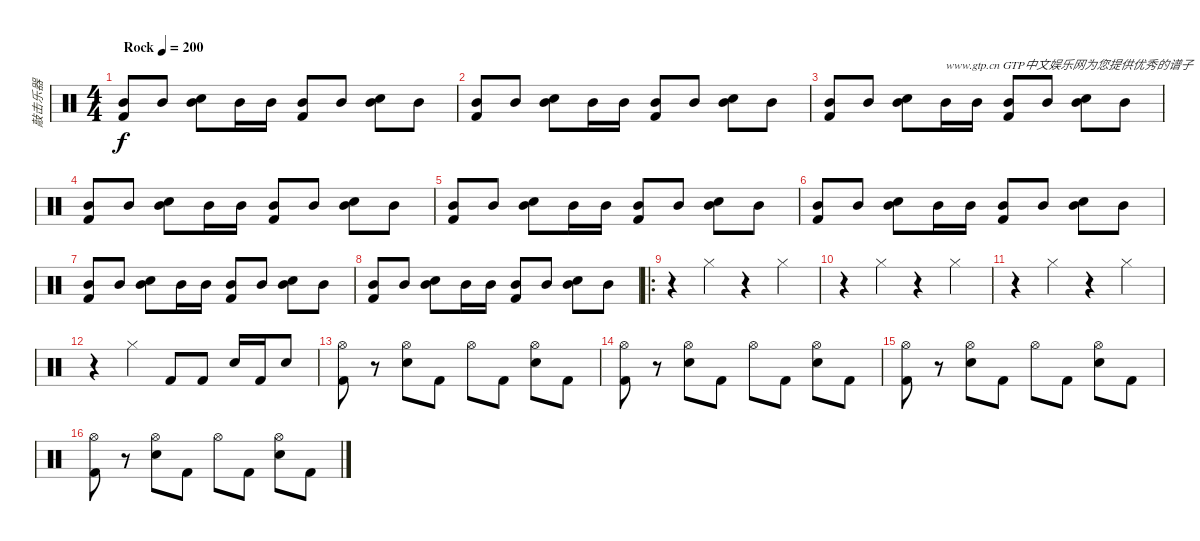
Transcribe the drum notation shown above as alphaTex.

\track ("敲击乐器" "敲击乐器") {instrument percussion}
\staff {score}
\articulation defaults
\ts (4 4)
\tempo (200 "Rock")
\clef neutral
\ks c
("Mid Tom (hit)" "Kick (hit) 2").8{dy f} "Mid Tom (hit)".8 ("Mid Tom (hit)" "Electric Snare (hit)").8 "Mid Tom (hit)".16 "Mid Tom (hit)".16 ("Mid Tom (hit)" "Kick (hit) 2").8 "Mid Tom (hit)".8 ("Mid Tom (hit)" "Electric Snare (hit)").8 "Mid Tom (hit)".8 |
("Mid Tom (hit)" "Kick (hit) 2").8 "Mid Tom (hit)".8 ("Mid Tom (hit)" "Electric Snare (hit)").8 "Mid Tom (hit)".16 "Mid Tom (hit)".16 ("Mid Tom (hit)" "Kick (hit) 2").8 "Mid Tom (hit)".8 ("Mid Tom (hit)" "Electric Snare (hit)").8 "Mid Tom (hit)".8 |
("Mid Tom (hit)" "Kick (hit) 2").8 "Mid Tom (hit)".8 ("Mid Tom (hit)" "Electric Snare (hit)").8 "Mid Tom (hit)".16{txt "www.gtp.cn GTP中文娱乐网为您提供优秀的谱子"} "Mid Tom (hit)".16 ("Mid Tom (hit)" "Kick (hit) 2").8 "Mid Tom (hit)".8 ("Mid Tom (hit)" "Electric Snare (hit)").8 "Mid Tom (hit)".8 |
("Mid Tom (hit)" "Kick (hit) 2").8 "Mid Tom (hit)".8 ("Mid Tom (hit)" "Electric Snare (hit)").8 "Mid Tom (hit)".16 "Mid Tom (hit)".16 ("Mid Tom (hit)" "Kick (hit) 2").8 "Mid Tom (hit)".8 ("Mid Tom (hit)" "Electric Snare (hit)").8 "Mid Tom (hit)".8 |
("Mid Tom (hit)" "Kick (hit) 2").8 "Mid Tom (hit)".8 ("Mid Tom (hit)" "Electric Snare (hit)").8 "Mid Tom (hit)".16 "Mid Tom (hit)".16 ("Mid Tom (hit)" "Kick (hit) 2").8 "Mid Tom (hit)".8 ("Mid Tom (hit)" "Electric Snare (hit)").8 "Mid Tom (hit)".8 |
("Mid Tom (hit)" "Kick (hit) 2").8 "Mid Tom (hit)".8 ("Mid Tom (hit)" "Electric Snare (hit)").8 "Mid Tom (hit)".16 "Mid Tom (hit)".16 ("Mid Tom (hit)" "Kick (hit) 2").8 "Mid Tom (hit)".8 ("Mid Tom (hit)" "Electric Snare (hit)").8 "Mid Tom (hit)".8 |
("Mid Tom (hit)" "Kick (hit) 2").8 "Mid Tom (hit)".8 ("Mid Tom (hit)" "Electric Snare (hit)").8 "Mid Tom (hit)".16 "Mid Tom (hit)".16 ("Mid Tom (hit)" "Kick (hit) 2").8 "Mid Tom (hit)".8 ("Mid Tom (hit)" "Electric Snare (hit)").8 "Mid Tom (hit)".8 |
("Mid Tom (hit)" "Kick (hit) 2").8 "Mid Tom (hit)".8 ("Mid Tom (hit)" "Electric Snare (hit)").8 "Mid Tom (hit)".16 "Mid Tom (hit)".16 ("Mid Tom (hit)" "Kick (hit) 2").8 "Mid Tom (hit)".8 ("Mid Tom (hit)" "Electric Snare (hit)").8 "Mid Tom (hit)".8 |
\ro
r.4 "Hi-Hat (closed)".4 r.4 "Hi-Hat (closed)".4 |
r.4 "Hi-Hat (closed)".4 r.4 "Hi-Hat (closed)".4 |
r.4 "Hi-Hat (closed)".4 r.4 "Hi-Hat (closed)".4 |
r.4 "Hi-Hat (closed)".4 "Kick (hit) 2".8 "Kick (hit) 2".8 "Electric Snare (hit)".16 "Kick (hit) 2".16 "Electric Snare (hit)".8 |
("Hi-Hat (open)" "Kick (hit) 2").8 r.8 ("Hi-Hat (open)" "Electric Snare (hit)").8 "Kick (hit) 2".8 "Hi-Hat (open)".8 "Kick (hit) 2".8 ("Hi-Hat (open)" "Electric Snare (hit)").8 "Kick (hit) 2".8 |
("Hi-Hat (open)" "Kick (hit) 2").8 r.8 ("Hi-Hat (open)" "Electric Snare (hit)").8 "Kick (hit) 2".8 "Hi-Hat (open)".8 "Kick (hit) 2".8 ("Hi-Hat (open)" "Electric Snare (hit)").8 "Kick (hit) 2".8 |
("Hi-Hat (open)" "Kick (hit) 2").8 r.8 ("Hi-Hat (open)" "Electric Snare (hit)").8 "Kick (hit) 2".8 "Hi-Hat (open)".8 "Kick (hit) 2".8 ("Hi-Hat (open)" "Electric Snare (hit)").8 "Kick (hit) 2".8 |
("Hi-Hat (open)" "Kick (hit) 2").8 r.8 ("Hi-Hat (open)" "Electric Snare (hit)").8 "Kick (hit) 2".8 "Hi-Hat (open)".8 "Kick (hit) 2".8 ("Hi-Hat (open)" "Electric Snare (hit)").8 "Kick (hit) 2".8
